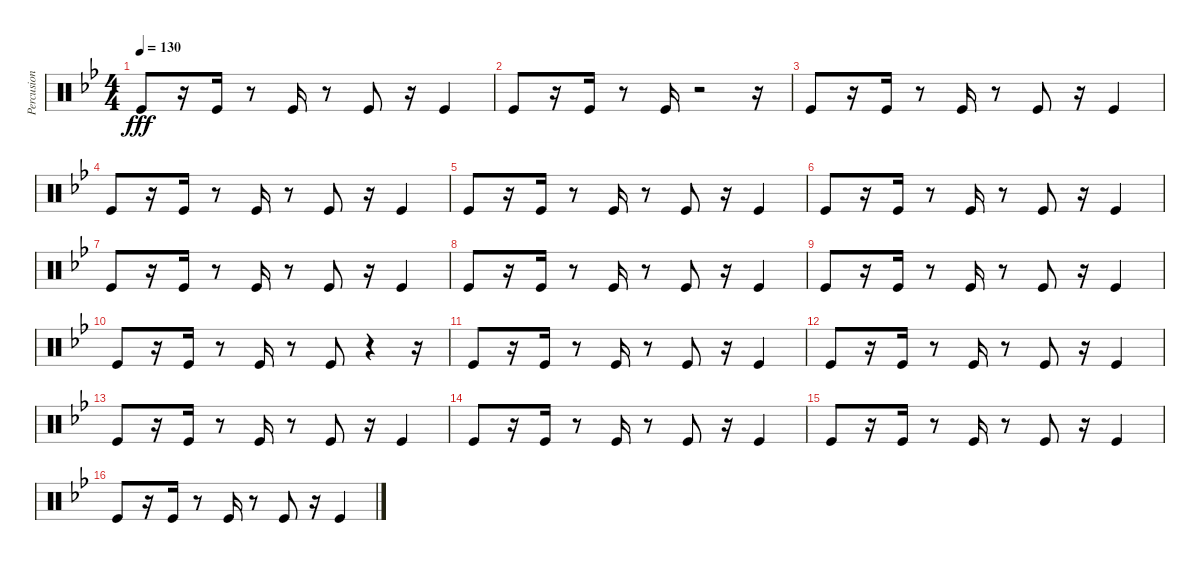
\track ("Percusion II" "Percusion ") {instrument percussion}
\staff {score}
\articulation defaults
\ts (4 4)
\tempo 130
\clef neutral
\ks gminor "Kick (hit)".8{dy fff}
r.16 "Kick (hit)".16 r.8 "Kick (hit)".16 r.8 "Kick (hit)".8 r.16 "Kick (hit)".4 |
"Kick (hit)".8 r.16 "Kick (hit)".16 r.8 "Kick (hit)".16 r.2 r.16 |
"Kick (hit)".8 r.16 "Kick (hit)".16 r.8 "Kick (hit)".16 r.8 "Kick (hit)".8 r.16 "Kick (hit)".4 |
"Kick (hit)".8 r.16 "Kick (hit)".16 r.8 "Kick (hit)".16 r.8 "Kick (hit)".8 r.16 "Kick (hit)".4 |
"Kick (hit)".8 r.16 "Kick (hit)".16 r.8 "Kick (hit)".16 r.8 "Kick (hit)".8 r.16 "Kick (hit)".4 |
"Kick (hit)".8 r.16 "Kick (hit)".16 r.8 "Kick (hit)".16 r.8 "Kick (hit)".8 r.16 "Kick (hit)".4 |
"Kick (hit)".8 r.16 "Kick (hit)".16 r.8 "Kick (hit)".16 r.8 "Kick (hit)".8 r.16 "Kick (hit)".4 |
"Kick (hit)".8 r.16 "Kick (hit)".16 r.8 "Kick (hit)".16 r.8 "Kick (hit)".8 r.16 "Kick (hit)".4 |
"Kick (hit)".8 r.16 "Kick (hit)".16 r.8 "Kick (hit)".16 r.8 "Kick (hit)".8 r.16 "Kick (hit)".4 |
"Kick (hit)".8 r.16 "Kick (hit)".16 r.8 "Kick (hit)".16 r.8 "Kick (hit)".8 r.4 r.16 |
"Kick (hit)".8 r.16 "Kick (hit)".16 r.8 "Kick (hit)".16 r.8 "Kick (hit)".8 r.16 "Kick (hit)".4 |
"Kick (hit)".8 r.16 "Kick (hit)".16 r.8 "Kick (hit)".16 r.8 "Kick (hit)".8 r.16 "Kick (hit)".4 |
"Kick (hit)".8 r.16 "Kick (hit)".16 r.8 "Kick (hit)".16 r.8 "Kick (hit)".8 r.16 "Kick (hit)".4 |
"Kick (hit)".8 r.16 "Kick (hit)".16 r.8 "Kick (hit)".16 r.8 "Kick (hit)".8 r.16 "Kick (hit)".4 |
"Kick (hit)".8 r.16 "Kick (hit)".16 r.8 "Kick (hit)".16 r.8 "Kick (hit)".8 r.16 "Kick (hit)".4 |
"Kick (hit)".8 r.16 "Kick (hit)".16 r.8 "Kick (hit)".16 r.8 "Kick (hit)".8 r.16 "Kick (hit)".4
